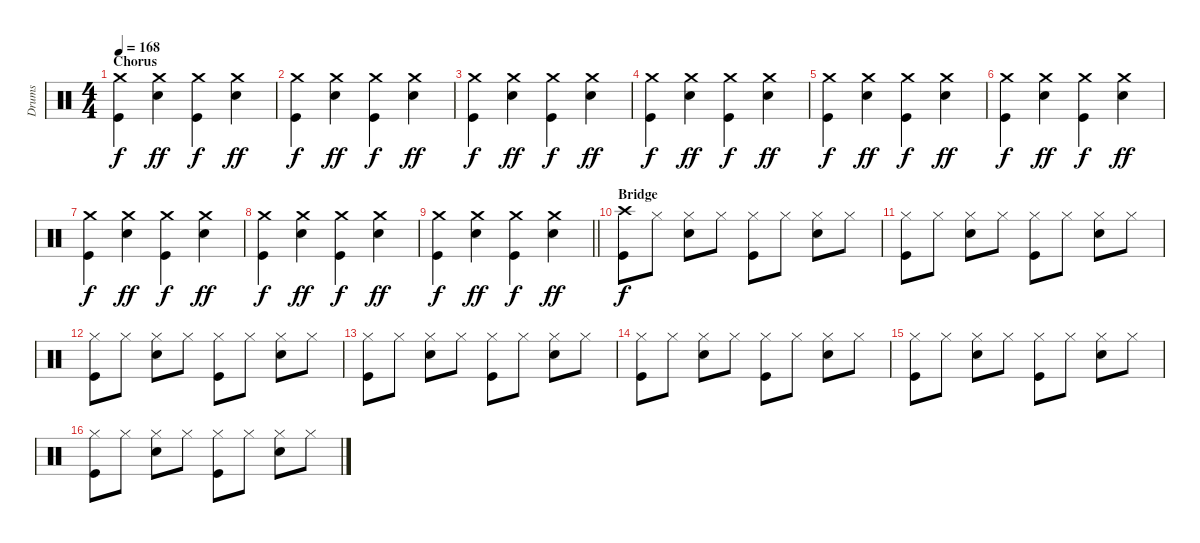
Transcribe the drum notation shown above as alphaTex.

\track ("Drums" "Drums") {instrument percussion}
\staff {score}
\articulation defaults
\ts (4 4)
\section ("" "Chorus")
\tempo 168
\clef neutral
\ks c
("Crash medium (hit)" "Kick (hit)").4{dy f} ("Crash medium (hit)" "Snare (hit) 2").4{dy ff} ("Crash medium (hit)" "Kick (hit)").4{dy f} ("Crash medium (hit)" "Snare (hit) 2").4{dy ff} |
("Crash medium (hit)" "Kick (hit)").4{dy f} ("Crash medium (hit)" "Snare (hit) 2").4{dy ff} ("Crash medium (hit)" "Kick (hit)").4{dy f} ("Crash medium (hit)" "Snare (hit) 2").4{dy ff} |
("Crash medium (hit)" "Kick (hit)").4{dy f} ("Crash medium (hit)" "Snare (hit) 2").4{dy ff} ("Crash medium (hit)" "Kick (hit)").4{dy f} ("Crash medium (hit)" "Snare (hit) 2").4{dy ff} |
("Crash medium (hit)" "Kick (hit)").4{dy f} ("Crash medium (hit)" "Snare (hit) 2").4{dy ff} ("Crash medium (hit)" "Kick (hit)").4{dy f} ("Crash medium (hit)" "Snare (hit) 2").4{dy ff} |
("Crash medium (hit)" "Kick (hit)").4{dy f} ("Crash medium (hit)" "Snare (hit) 2").4{dy ff} ("Crash medium (hit)" "Kick (hit)").4{dy f} ("Crash medium (hit)" "Snare (hit) 2").4{dy ff} |
("Crash medium (hit)" "Kick (hit)").4{dy f} ("Crash medium (hit)" "Snare (hit) 2").4{dy ff} ("Crash medium (hit)" "Kick (hit)").4{dy f} ("Crash medium (hit)" "Snare (hit) 2").4{dy ff} |
("Crash medium (hit)" "Kick (hit)").4{dy f} ("Crash medium (hit)" "Snare (hit) 2").4{dy ff} ("Crash medium (hit)" "Kick (hit)").4{dy f} ("Crash medium (hit)" "Snare (hit) 2").4{dy ff} |
("Crash medium (hit)" "Kick (hit)").4{dy f} ("Crash medium (hit)" "Snare (hit) 2").4{dy ff} ("Crash medium (hit)" "Kick (hit)").4{dy f} ("Crash medium (hit)" "Snare (hit) 2").4{dy ff} |
\barLineRight lightlight
("Crash medium (hit)" "Kick (hit)").4{dy f} ("Crash medium (hit)" "Snare (hit) 2").4{dy ff} ("Crash medium (hit)" "Kick (hit)").4{dy f} ("Crash medium (hit)" "Snare (hit) 2").4{dy ff} |
\section ("" "Bridge")
("Crash high (hit)" "Kick (hit)").8{dy f} "Hi-Hat (closed)".8 ("Hi-Hat (closed)" "Snare (hit) 2").8 "Hi-Hat (closed)".8 ("Hi-Hat (closed)" "Kick (hit)").8 "Hi-Hat (closed)".8 ("Hi-Hat (closed)" "Snare (hit) 2").8 "Hi-Hat (closed)".8 |
("Hi-Hat (closed)" "Kick (hit)").8 "Hi-Hat (closed)".8 ("Hi-Hat (closed)" "Snare (hit) 2").8 "Hi-Hat (closed)".8 ("Hi-Hat (closed)" "Kick (hit)").8 "Hi-Hat (closed)".8 ("Hi-Hat (closed)" "Snare (hit) 2").8 "Hi-Hat (closed)".8 |
("Hi-Hat (closed)" "Kick (hit)").8 "Hi-Hat (closed)".8 ("Hi-Hat (closed)" "Snare (hit) 2").8 "Hi-Hat (closed)".8 ("Hi-Hat (closed)" "Kick (hit)").8 "Hi-Hat (closed)".8 ("Hi-Hat (closed)" "Snare (hit) 2").8 "Hi-Hat (closed)".8 |
("Hi-Hat (closed)" "Kick (hit)").8 "Hi-Hat (closed)".8 ("Hi-Hat (closed)" "Snare (hit) 2").8 "Hi-Hat (closed)".8 ("Hi-Hat (closed)" "Kick (hit)").8 "Hi-Hat (closed)".8 ("Hi-Hat (closed)" "Snare (hit) 2").8 "Hi-Hat (closed)".8 |
("Hi-Hat (closed)" "Kick (hit)").8 "Hi-Hat (closed)".8 ("Hi-Hat (closed)" "Snare (hit) 2").8 "Hi-Hat (closed)".8 ("Hi-Hat (closed)" "Kick (hit)").8 "Hi-Hat (closed)".8 ("Hi-Hat (closed)" "Snare (hit) 2").8 "Hi-Hat (closed)".8 |
("Hi-Hat (closed)" "Kick (hit)").8 "Hi-Hat (closed)".8 ("Hi-Hat (closed)" "Snare (hit) 2").8 "Hi-Hat (closed)".8 ("Hi-Hat (closed)" "Kick (hit)").8 "Hi-Hat (closed)".8 ("Hi-Hat (closed)" "Snare (hit) 2").8 "Hi-Hat (closed)".8 |
("Hi-Hat (closed)" "Kick (hit)").8 "Hi-Hat (closed)".8 ("Hi-Hat (closed)" "Snare (hit) 2").8 "Hi-Hat (closed)".8 ("Hi-Hat (closed)" "Kick (hit)").8 "Hi-Hat (closed)".8 ("Hi-Hat (closed)" "Snare (hit) 2").8 "Hi-Hat (closed)".8
